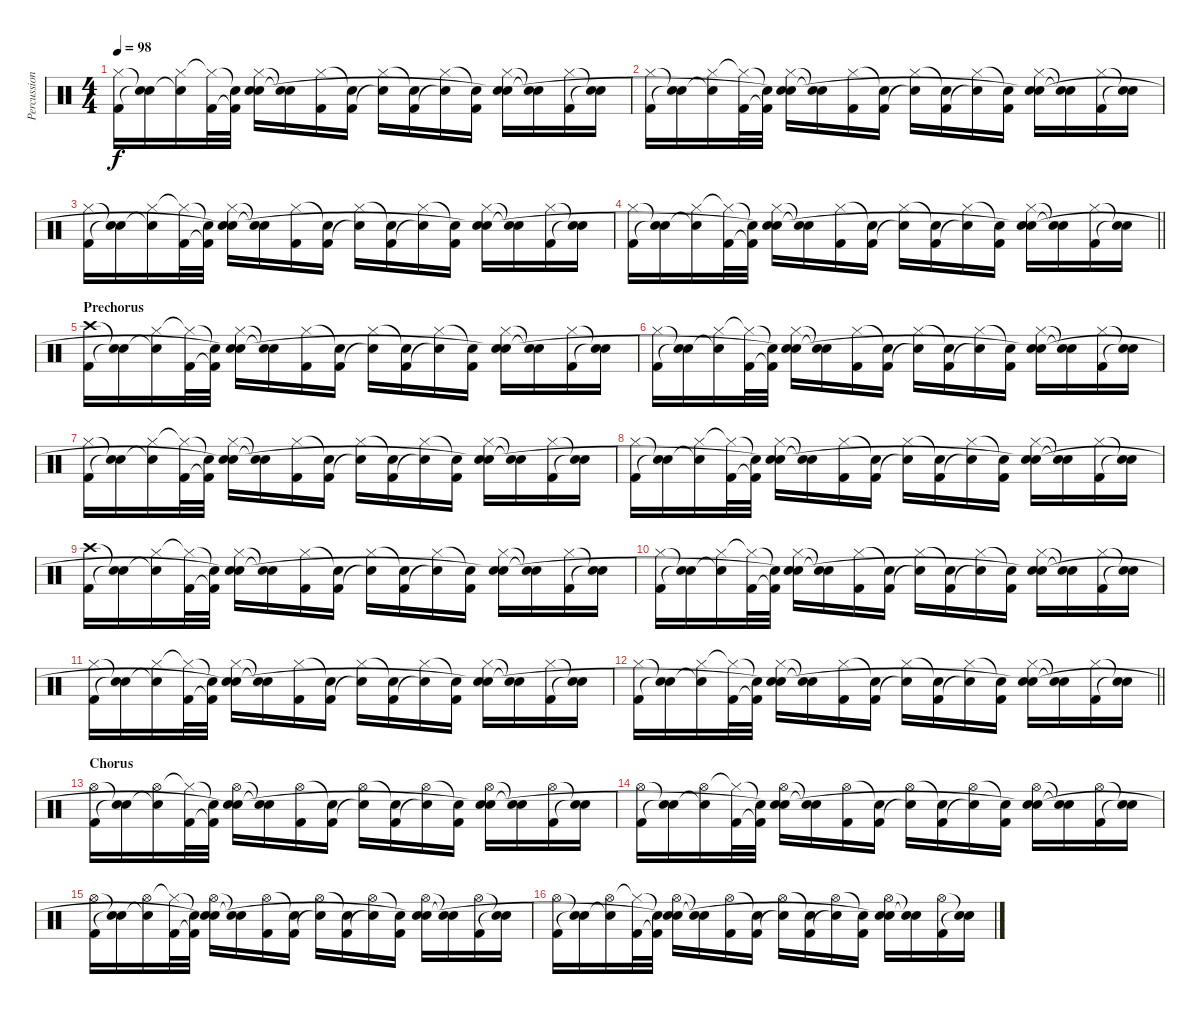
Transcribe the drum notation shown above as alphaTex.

\track ("Percussion" "Percussion") {instrument percussion}
\staff {score}
\articulation defaults
\ts (4 4)
\tempo 98
\clef neutral
\ks c
("Hi-Hat (closed)" "Kick (hit) 2").16{dy f} ("Snare (hit)"{t} "Snare (hit)"{t}).16 ("Hi-Hat (closed)" "Snare (hit)"{t}).16 ("Hi-Hat (closed)"{t} "Kick (hit) 2").32 ("Snare (hit)"{t} "Kick (hit) 2"{t}).32 ("Hi-Hat (closed)" "Electric Snare (hit)" "Snare (hit)"{t}).16 ("Snare (hit)"{t} "Snare (hit)"{t}).16 ("Hi-Hat (closed)" "Kick (hit) 2").16 ("Snare (hit)"{t} "Kick (hit) 2").16 ("Hi-Hat (closed)" "Snare (hit)"{t}).16 ("Snare (hit)"{t} "Kick (hit) 2").16 ("Hi-Hat (closed)" "Snare (hit)"{t}).16 ("Snare (hit)"{t} "Kick (hit) 2").16 ("Hi-Hat (closed)" "Electric Snare (hit)" "Snare (hit)"{t}).16 ("Snare (hit)"{t} "Snare (hit)"{t}).16 ("Hi-Hat (closed)" "Kick (hit) 2").16 ("Snare (hit)"{t} "Snare (hit)"{t}).16 |
("Hi-Hat (closed)" "Kick (hit) 2").16 ("Snare (hit)"{t} "Snare (hit)"{t}).16 ("Hi-Hat (closed)" "Snare (hit)"{t}).16 ("Hi-Hat (closed)"{t} "Kick (hit) 2").32 ("Snare (hit)"{t} "Kick (hit) 2"{t}).32 ("Hi-Hat (closed)" "Electric Snare (hit)" "Snare (hit)"{t}).16 ("Snare (hit)"{t} "Snare (hit)"{t}).16 ("Hi-Hat (closed)" "Kick (hit) 2").16 ("Snare (hit)"{t} "Kick (hit) 2").16 ("Hi-Hat (closed)" "Snare (hit)"{t}).16 ("Snare (hit)"{t} "Kick (hit) 2").16 ("Hi-Hat (closed)" "Snare (hit)"{t}).16 ("Snare (hit)"{t} "Kick (hit) 2").16 ("Hi-Hat (closed)" "Electric Snare (hit)" "Snare (hit)"{t}).16 ("Snare (hit)"{t} "Snare (hit)"{t}).16 ("Hi-Hat (closed)" "Kick (hit) 2").16 ("Snare (hit)"{t} "Snare (hit)"{t}).16 |
("Hi-Hat (closed)" "Kick (hit) 2").16 ("Snare (hit)"{t} "Snare (hit)"{t}).16 ("Hi-Hat (closed)" "Snare (hit)"{t}).16 ("Hi-Hat (closed)"{t} "Kick (hit) 2").32 ("Snare (hit)"{t} "Kick (hit) 2"{t}).32 ("Hi-Hat (closed)" "Electric Snare (hit)" "Snare (hit)"{t}).16 ("Snare (hit)"{t} "Snare (hit)"{t}).16 ("Hi-Hat (closed)" "Kick (hit) 2").16 ("Snare (hit)"{t} "Kick (hit) 2").16 ("Hi-Hat (closed)" "Snare (hit)"{t}).16 ("Snare (hit)"{t} "Kick (hit) 2").16 ("Hi-Hat (closed)" "Snare (hit)"{t}).16 ("Snare (hit)"{t} "Kick (hit) 2").16 ("Hi-Hat (closed)" "Electric Snare (hit)" "Snare (hit)"{t}).16 ("Snare (hit)"{t} "Snare (hit)"{t}).16 ("Hi-Hat (closed)" "Kick (hit) 2").16 ("Snare (hit)"{t} "Snare (hit)"{t}).16 |
\barLineRight lightlight
("Hi-Hat (closed)" "Kick (hit) 2").16 ("Snare (hit)"{t} "Snare (hit)"{t}).16 ("Hi-Hat (closed)" "Snare (hit)"{t}).16 ("Hi-Hat (closed)"{t} "Kick (hit) 2").32 ("Snare (hit)"{t} "Kick (hit) 2"{t}).32 ("Hi-Hat (closed)" "Electric Snare (hit)" "Snare (hit)"{t}).16 ("Snare (hit)"{t} "Snare (hit)"{t}).16 ("Hi-Hat (closed)" "Kick (hit) 2").16 ("Snare (hit)"{t} "Kick (hit) 2").16 ("Hi-Hat (closed)" "Snare (hit)"{t}).16 ("Snare (hit)"{t} "Kick (hit) 2").16 ("Hi-Hat (closed)" "Snare (hit)"{t}).16 ("Snare (hit)"{t} "Kick (hit) 2").16 ("Hi-Hat (closed)" "Electric Snare (hit)" "Snare (hit)"{t}).16 ("Snare (hit)"{t} "Snare (hit)"{t}).16 ("Hi-Hat (closed)" "Kick (hit) 2").16 ("Snare (hit)"{t} "Snare (hit)"{t}).16 |
\section ("" "Prechorus")
("Crash high (hit)" "Kick (hit) 2").16 ("Snare (hit)"{t} "Snare (hit)"{t}).16 ("Hi-Hat (closed)" "Snare (hit)"{t}).16 ("Hi-Hat (closed)"{t} "Kick (hit) 2").32 ("Snare (hit)"{t} "Kick (hit) 2"{t}).32 ("Hi-Hat (closed)" "Electric Snare (hit)" "Snare (hit)"{t}).16 ("Snare (hit)"{t} "Snare (hit)"{t}).16 ("Hi-Hat (closed)" "Kick (hit) 2").16 ("Snare (hit)"{t} "Kick (hit) 2").16 ("Hi-Hat (closed)" "Snare (hit)"{t}).16 ("Snare (hit)"{t} "Kick (hit) 2").16 ("Hi-Hat (closed)" "Snare (hit)"{t}).16 ("Snare (hit)"{t} "Kick (hit) 2").16 ("Hi-Hat (closed)" "Electric Snare (hit)" "Snare (hit)"{t}).16 ("Snare (hit)"{t} "Snare (hit)"{t}).16 ("Hi-Hat (closed)" "Kick (hit) 2").16 ("Snare (hit)"{t} "Snare (hit)"{t}).16 |
("Hi-Hat (closed)" "Kick (hit) 2").16 ("Snare (hit)"{t} "Snare (hit)"{t}).16 ("Hi-Hat (closed)" "Snare (hit)"{t}).16 ("Hi-Hat (closed)"{t} "Kick (hit) 2").32 ("Snare (hit)"{t} "Kick (hit) 2"{t}).32 ("Hi-Hat (closed)" "Electric Snare (hit)" "Snare (hit)"{t}).16 ("Snare (hit)"{t} "Snare (hit)"{t}).16 ("Hi-Hat (closed)" "Kick (hit) 2").16 ("Snare (hit)"{t} "Kick (hit) 2").16 ("Hi-Hat (closed)" "Snare (hit)"{t}).16 ("Snare (hit)"{t} "Kick (hit) 2").16 ("Hi-Hat (closed)" "Snare (hit)"{t}).16 ("Snare (hit)"{t} "Kick (hit) 2").16 ("Hi-Hat (closed)" "Electric Snare (hit)" "Snare (hit)"{t}).16 ("Snare (hit)"{t} "Snare (hit)"{t}).16 ("Hi-Hat (closed)" "Kick (hit) 2").16 ("Snare (hit)"{t} "Snare (hit)"{t}).16 |
("Hi-Hat (closed)" "Kick (hit) 2").16 ("Snare (hit)"{t} "Snare (hit)"{t}).16 ("Hi-Hat (closed)" "Snare (hit)"{t}).16 ("Hi-Hat (closed)"{t} "Kick (hit) 2").32 ("Snare (hit)"{t} "Kick (hit) 2"{t}).32 ("Hi-Hat (closed)" "Electric Snare (hit)" "Snare (hit)"{t}).16 ("Snare (hit)"{t} "Snare (hit)"{t}).16 ("Hi-Hat (closed)" "Kick (hit) 2").16 ("Snare (hit)"{t} "Kick (hit) 2").16 ("Hi-Hat (closed)" "Snare (hit)"{t}).16 ("Snare (hit)"{t} "Kick (hit) 2").16 ("Hi-Hat (closed)" "Snare (hit)"{t}).16 ("Snare (hit)"{t} "Kick (hit) 2").16 ("Hi-Hat (closed)" "Electric Snare (hit)" "Snare (hit)"{t}).16 ("Snare (hit)"{t} "Snare (hit)"{t}).16 ("Hi-Hat (closed)" "Kick (hit) 2").16 ("Snare (hit)"{t} "Snare (hit)"{t}).16 |
("Hi-Hat (closed)" "Kick (hit) 2").16 ("Snare (hit)"{t} "Snare (hit)"{t}).16 ("Hi-Hat (closed)" "Snare (hit)"{t}).16 ("Hi-Hat (closed)"{t} "Kick (hit) 2").32 ("Snare (hit)"{t} "Kick (hit) 2"{t}).32 ("Hi-Hat (closed)" "Electric Snare (hit)" "Snare (hit)"{t}).16 ("Snare (hit)"{t} "Snare (hit)"{t}).16 ("Hi-Hat (closed)" "Kick (hit) 2").16 ("Snare (hit)"{t} "Kick (hit) 2").16 ("Hi-Hat (closed)" "Snare (hit)"{t}).16 ("Snare (hit)"{t} "Kick (hit) 2").16 ("Hi-Hat (closed)" "Snare (hit)"{t}).16 ("Snare (hit)"{t} "Kick (hit) 2").16 ("Hi-Hat (closed)" "Electric Snare (hit)" "Snare (hit)"{t}).16 ("Snare (hit)"{t} "Snare (hit)"{t}).16 ("Hi-Hat (closed)" "Kick (hit) 2").16 ("Snare (hit)"{t} "Snare (hit)"{t}).16 |
("Crash high (hit)" "Kick (hit) 2").16 ("Snare (hit)"{t} "Snare (hit)"{t}).16 ("Hi-Hat (closed)" "Snare (hit)"{t}).16 ("Hi-Hat (closed)"{t} "Kick (hit) 2").32 ("Snare (hit)"{t} "Kick (hit) 2"{t}).32 ("Hi-Hat (closed)" "Electric Snare (hit)" "Snare (hit)"{t}).16 ("Snare (hit)"{t} "Snare (hit)"{t}).16 ("Hi-Hat (closed)" "Kick (hit) 2").16 ("Snare (hit)"{t} "Kick (hit) 2").16 ("Hi-Hat (closed)" "Snare (hit)"{t}).16 ("Snare (hit)"{t} "Kick (hit) 2").16 ("Hi-Hat (closed)" "Snare (hit)"{t}).16 ("Snare (hit)"{t} "Kick (hit) 2").16 ("Hi-Hat (closed)" "Electric Snare (hit)" "Snare (hit)"{t}).16 ("Snare (hit)"{t} "Snare (hit)"{t}).16 ("Hi-Hat (closed)" "Kick (hit) 2").16 ("Snare (hit)"{t} "Snare (hit)"{t}).16 |
("Hi-Hat (closed)" "Kick (hit) 2").16 ("Snare (hit)"{t} "Snare (hit)"{t}).16 ("Hi-Hat (closed)" "Snare (hit)"{t}).16 ("Hi-Hat (closed)"{t} "Kick (hit) 2").32 ("Snare (hit)"{t} "Kick (hit) 2"{t}).32 ("Hi-Hat (closed)" "Electric Snare (hit)" "Snare (hit)"{t}).16 ("Snare (hit)"{t} "Snare (hit)"{t}).16 ("Hi-Hat (closed)" "Kick (hit) 2").16 ("Snare (hit)"{t} "Kick (hit) 2").16 ("Hi-Hat (closed)" "Snare (hit)"{t}).16 ("Snare (hit)"{t} "Kick (hit) 2").16 ("Hi-Hat (closed)" "Snare (hit)"{t}).16 ("Snare (hit)"{t} "Kick (hit) 2").16 ("Hi-Hat (closed)" "Electric Snare (hit)" "Snare (hit)"{t}).16 ("Snare (hit)"{t} "Snare (hit)"{t}).16 ("Hi-Hat (closed)" "Kick (hit) 2").16 ("Snare (hit)"{t} "Snare (hit)"{t}).16 |
("Hi-Hat (closed)" "Kick (hit) 2").16 ("Snare (hit)"{t} "Snare (hit)"{t}).16 ("Hi-Hat (closed)" "Snare (hit)"{t}).16 ("Hi-Hat (closed)"{t} "Kick (hit) 2").32 ("Snare (hit)"{t} "Kick (hit) 2"{t}).32 ("Hi-Hat (closed)" "Electric Snare (hit)" "Snare (hit)"{t}).16 ("Snare (hit)"{t} "Snare (hit)"{t}).16 ("Hi-Hat (closed)" "Kick (hit) 2").16 ("Snare (hit)"{t} "Kick (hit) 2").16 ("Hi-Hat (closed)" "Snare (hit)"{t}).16 ("Snare (hit)"{t} "Kick (hit) 2").16 ("Hi-Hat (closed)" "Snare (hit)"{t}).16 ("Snare (hit)"{t} "Kick (hit) 2").16 ("Hi-Hat (closed)" "Electric Snare (hit)" "Snare (hit)"{t}).16 ("Snare (hit)"{t} "Snare (hit)"{t}).16 ("Hi-Hat (closed)" "Kick (hit) 2").16 ("Snare (hit)"{t} "Snare (hit)"{t}).16 |
\barLineRight lightlight
("Hi-Hat (closed)" "Kick (hit) 2").16 ("Snare (hit)"{t} "Snare (hit)"{t}).16 ("Hi-Hat (closed)" "Snare (hit)"{t}).16 ("Hi-Hat (closed)"{t} "Kick (hit) 2").32 ("Snare (hit)"{t} "Kick (hit) 2"{t}).32 ("Hi-Hat (closed)" "Electric Snare (hit)" "Snare (hit)"{t}).16 ("Snare (hit)"{t} "Snare (hit)"{t}).16 ("Hi-Hat (closed)" "Kick (hit) 2").16 ("Snare (hit)"{t} "Kick (hit) 2").16 ("Hi-Hat (closed)" "Snare (hit)"{t}).16 ("Snare (hit)"{t} "Kick (hit) 2").16 ("Hi-Hat (closed)" "Snare (hit)"{t}).16 ("Snare (hit)"{t} "Kick (hit) 2").16 ("Hi-Hat (closed)" "Electric Snare (hit)" "Snare (hit)"{t}).16 ("Snare (hit)"{t} "Snare (hit)"{t}).16 ("Hi-Hat (closed)" "Kick (hit) 2").16 ("Snare (hit)"{t} "Snare (hit)"{t}).16 |
\section ("" "Chorus")
("Hi-Hat (open)" "Kick (hit) 2").16 ("Snare (hit)"{t} "Snare (hit)"{t}).16 ("Hi-Hat (open)" "Snare (hit)"{t}).16 ("Hi-Hat (closed)"{t} "Kick (hit) 2").32 ("Snare (hit)"{t} "Kick (hit) 2"{t}).32 ("Hi-Hat (open)" "Electric Snare (hit)" "Snare (hit)"{t}).16 ("Snare (hit)"{t} "Snare (hit)"{t}).16 ("Hi-Hat (open)" "Kick (hit) 2").16 ("Snare (hit)"{t} "Kick (hit) 2").16 ("Hi-Hat (open)" "Snare (hit)"{t}).16 ("Snare (hit)"{t} "Kick (hit) 2").16 ("Hi-Hat (open)" "Snare (hit)"{t}).16 ("Snare (hit)"{t} "Kick (hit) 2").16 ("Hi-Hat (open)" "Electric Snare (hit)" "Snare (hit)"{t}).16 ("Snare (hit)"{t} "Snare (hit)"{t}).16 ("Hi-Hat (open)" "Kick (hit) 2").16 ("Snare (hit)"{t} "Snare (hit)"{t}).16 |
("Hi-Hat (open)" "Kick (hit) 2").16 ("Snare (hit)"{t} "Snare (hit)"{t}).16 ("Hi-Hat (open)" "Snare (hit)"{t}).16 ("Hi-Hat (closed)"{t} "Kick (hit) 2").32 ("Snare (hit)"{t} "Kick (hit) 2"{t}).32 ("Hi-Hat (open)" "Electric Snare (hit)" "Snare (hit)"{t}).16 ("Snare (hit)"{t} "Snare (hit)"{t}).16 ("Hi-Hat (open)" "Kick (hit) 2").16 ("Snare (hit)"{t} "Kick (hit) 2").16 ("Hi-Hat (open)" "Snare (hit)"{t}).16 ("Snare (hit)"{t} "Kick (hit) 2").16 ("Hi-Hat (open)" "Snare (hit)"{t}).16 ("Snare (hit)"{t} "Kick (hit) 2").16 ("Hi-Hat (open)" "Electric Snare (hit)" "Snare (hit)"{t}).16 ("Snare (hit)"{t} "Snare (hit)"{t}).16 ("Hi-Hat (open)" "Kick (hit) 2").16 ("Snare (hit)"{t} "Snare (hit)"{t}).16 |
("Hi-Hat (open)" "Kick (hit) 2").16 ("Snare (hit)"{t} "Snare (hit)"{t}).16 ("Hi-Hat (open)" "Snare (hit)"{t}).16 ("Hi-Hat (closed)"{t} "Kick (hit) 2").32 ("Snare (hit)"{t} "Kick (hit) 2"{t}).32 ("Hi-Hat (open)" "Electric Snare (hit)" "Snare (hit)"{t}).16 ("Snare (hit)"{t} "Snare (hit)"{t}).16 ("Hi-Hat (open)" "Kick (hit) 2").16 ("Snare (hit)"{t} "Kick (hit) 2").16 ("Hi-Hat (open)" "Snare (hit)"{t}).16 ("Snare (hit)"{t} "Kick (hit) 2").16 ("Hi-Hat (open)" "Snare (hit)"{t}).16 ("Snare (hit)"{t} "Kick (hit) 2").16 ("Hi-Hat (open)" "Electric Snare (hit)" "Snare (hit)"{t}).16 ("Snare (hit)"{t} "Snare (hit)"{t}).16 ("Hi-Hat (open)" "Kick (hit) 2").16 ("Snare (hit)"{t} "Snare (hit)"{t}).16 |
("Hi-Hat (open)" "Kick (hit) 2").16 ("Snare (hit)"{t} "Snare (hit)"{t}).16 ("Hi-Hat (open)" "Snare (hit)"{t}).16 ("Hi-Hat (closed)"{t} "Kick (hit) 2").32 ("Snare (hit)"{t} "Kick (hit) 2"{t}).32 ("Hi-Hat (open)" "Electric Snare (hit)" "Snare (hit)"{t}).16 ("Snare (hit)"{t} "Snare (hit)"{t}).16 ("Hi-Hat (open)" "Kick (hit) 2").16 ("Snare (hit)"{t} "Kick (hit) 2").16 ("Hi-Hat (open)" "Snare (hit)"{t}).16 ("Snare (hit)"{t} "Kick (hit) 2").16 ("Hi-Hat (open)" "Snare (hit)"{t}).16 ("Snare (hit)"{t} "Kick (hit) 2").16 ("Hi-Hat (open)" "Electric Snare (hit)" "Snare (hit)"{t}).16 ("Snare (hit)"{t} "Snare (hit)"{t}).16 ("Hi-Hat (open)" "Kick (hit) 2").16 ("Snare (hit)"{t} "Snare (hit)"{t}).16
